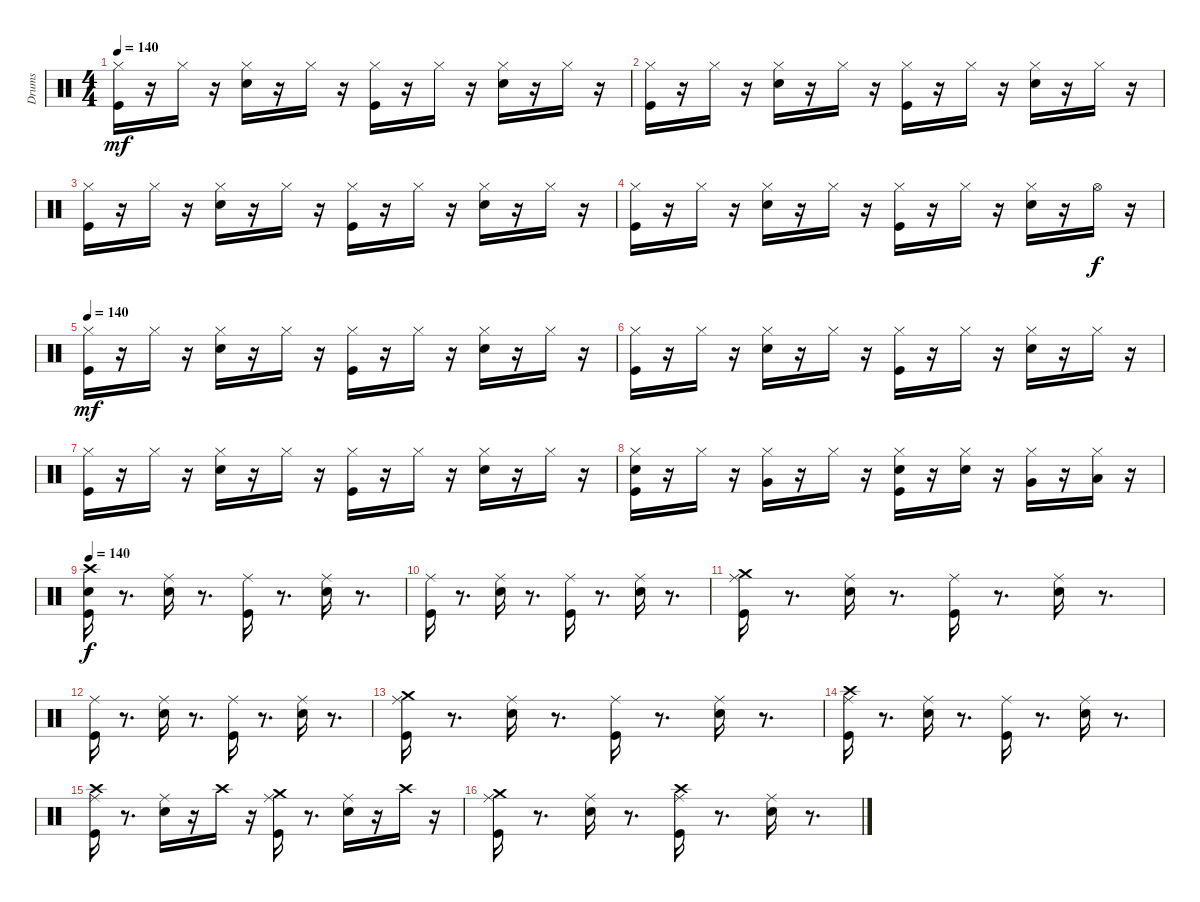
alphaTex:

\track ("Drums" "Drums") {instrument percussion}
\staff {score}
\articulation defaults
\ts (4 4)
\tempo 140
\clef neutral
\ks c
("Hi-Hat (closed)" "Kick (hit)").16{dy mf} r.16 "Hi-Hat (closed)".16 r.16 ("Snare (hit) 2" "Hi-Hat (closed)").16 r.16 "Hi-Hat (closed)".16 r.16 ("Kick (hit)" "Hi-Hat (closed)").16 r.16 "Hi-Hat (closed)".16 r.16 ("Snare (hit) 2" "Hi-Hat (closed)").16 r.16 "Hi-Hat (closed)".16 r.16 |
("Hi-Hat (closed)" "Kick (hit)").16 r.16 "Hi-Hat (closed)".16 r.16 ("Hi-Hat (closed)" "Snare (hit) 2").16 r.16 "Hi-Hat (closed)".16 r.16 ("Hi-Hat (closed)" "Kick (hit)").16 r.16 "Hi-Hat (closed)".16 r.16 ("Snare (hit) 2" "Hi-Hat (closed)").16 r.16 "Hi-Hat (closed)".16 r.16 |
("Hi-Hat (closed)" "Kick (hit)").16 r.16 "Hi-Hat (closed)".16 r.16 ("Hi-Hat (closed)" "Snare (hit) 2").16 r.16 "Hi-Hat (closed)".16 r.16 ("Kick (hit)" "Hi-Hat (closed)").16 r.16 "Hi-Hat (closed)".16 r.16 ("Snare (hit) 2" "Hi-Hat (closed)").16 r.16 "Hi-Hat (closed)".16 r.16 |
("Hi-Hat (closed)" "Kick (hit)").16 r.16 "Hi-Hat (closed)".16 r.16 ("Snare (hit) 2" "Hi-Hat (closed)").16 r.16 "Hi-Hat (closed)".16 r.16 ("Kick (hit)" "Hi-Hat (closed)").16 r.16 "Hi-Hat (closed)".16 r.16 ("Snare (hit) 2" "Hi-Hat (closed)").16 r.16 "Hi-Hat (open)".16{dy f} r.16 |
\tempo 140
("Kick (hit)" "Hi-Hat (closed)").16{dy mf} r.16 "Hi-Hat (closed)".16 r.16 ("Hi-Hat (closed)" "Snare (hit) 2").16 r.16 "Hi-Hat (closed)".16 r.16 ("Hi-Hat (closed)" "Kick (hit)").16 r.16 "Hi-Hat (closed)".16 r.16 ("Hi-Hat (closed)" "Snare (hit) 2").16 r.16 "Hi-Hat (closed)".16 r.16 |
("Hi-Hat (closed)" "Kick (hit)").16 r.16 "Hi-Hat (closed)".16 r.16 ("Snare (hit) 2" "Hi-Hat (closed)").16 r.16 "Hi-Hat (closed)".16 r.16 ("Kick (hit)" "Hi-Hat (closed)").16 r.16 "Hi-Hat (closed)".16 r.16 ("Snare (hit) 2" "Hi-Hat (closed)").16 r.16 "Hi-Hat (closed)".16 r.16 |
("Kick (hit)" "Hi-Hat (closed)").16 r.16 "Hi-Hat (closed)".16 r.16 ("Snare (hit) 2" "Hi-Hat (closed)").16 r.16 "Hi-Hat (closed)".16 r.16 ("Hi-Hat (closed)" "Kick (hit)").16 r.16 "Hi-Hat (closed)".16 r.16 ("Hi-Hat (closed)" "Snare (hit) 2").16 r.16 "Hi-Hat (closed)".16 r.16 |
("Kick (hit)" "Hi-Hat (closed)" "Snare (hit) 2").16 r.16 "Hi-Hat (closed)".16 r.16 ("Hi-Hat (closed)" "Very Low Tom (hit)").16 r.16 "Hi-Hat (closed)".16 r.16 ("Hi-Hat (closed)" "Snare (hit) 2" "Kick (hit)").16 r.16 ("Hi-Hat (closed)" "Snare (hit) 2").16 r.16 ("Hi-Hat (closed)" "Very Low Tom (hit)").16 r.16 ("Low Floor Tom (hit)" "Hi-Hat (closed)").16 r.16 |
\tempo 140
("Kick (hit)" "Snare (hit) 2" "Crash high (hit)").16{dy f} r.8{d} ("Ride (middle)" "Snare (hit) 2").16 r.8{d} ("Ride (middle)" "Kick (hit)").16 r.8{d} ("Ride (middle)" "Snare (hit) 2").16 r.8{d} |
("Ride (middle)" "Kick (hit)").16 r.8{d} ("Ride (middle)" "Snare (hit) 2").16 r.8{d} ("Kick (hit)" "Ride (middle)").16 r.8{d} ("Snare (hit) 2" "Ride (middle)").16 r.8{d} |
("Ride (middle)" "Kick (hit)" "Crash medium (hit)").16 r.8{d} ("Snare (hit) 2" "Ride (middle)").16 r.8{d} ("Kick (hit)" "Ride (middle)").16 r.8{d} ("Snare (hit) 2" "Ride (middle)").16 r.8{d} |
("Kick (hit)" "Ride (middle)").16 r.8{d} ("Ride (middle)" "Snare (hit) 2").16 r.8{d} ("Ride (middle)" "Kick (hit)").16 r.8{d} ("Ride (middle)" "Snare (hit) 2").16 r.8{d} |
("Crash medium (hit)" "Ride (middle)" "Kick (hit)").16 r.8{d} ("Ride (middle)" "Snare (hit) 2").16 r.8{d} ("Ride (middle)" "Kick (hit)").16 r.8{d} ("Ride (middle)" "Snare (hit) 2").16 r.8{d} |
("Crash high (hit)" "Ride (middle)" "Kick (hit)").16 r.8{d} ("Snare (hit) 2" "Ride (middle)").16 r.8{d} ("Kick (hit)" "Ride (middle)").16 r.8{d} ("Ride (middle)" "Snare (hit) 2").16 r.8{d} |
("Ride (middle)" "Crash high (hit)" "Kick (hit)").16 r.8{d} ("Snare (hit) 2" "Ride (middle)").16 r.16 "Crash high (hit)".16 r.16 ("Crash medium (hit)" "Kick (hit)" "Ride (middle)").16 r.8{d} ("Snare (hit) 2" "Ride (middle)").16 r.16 "Crash high (hit)".16 r.16 |
("Crash medium (hit)" "Kick (hit)" "Ride (middle)").16 r.8{d} ("Ride (middle)" "Snare (hit) 2").16 r.8{d} ("Crash high (hit)" "Ride (middle)" "Kick (hit)").16 r.8{d} ("Ride (middle)" "Snare (hit) 2").16 r.8{d}
